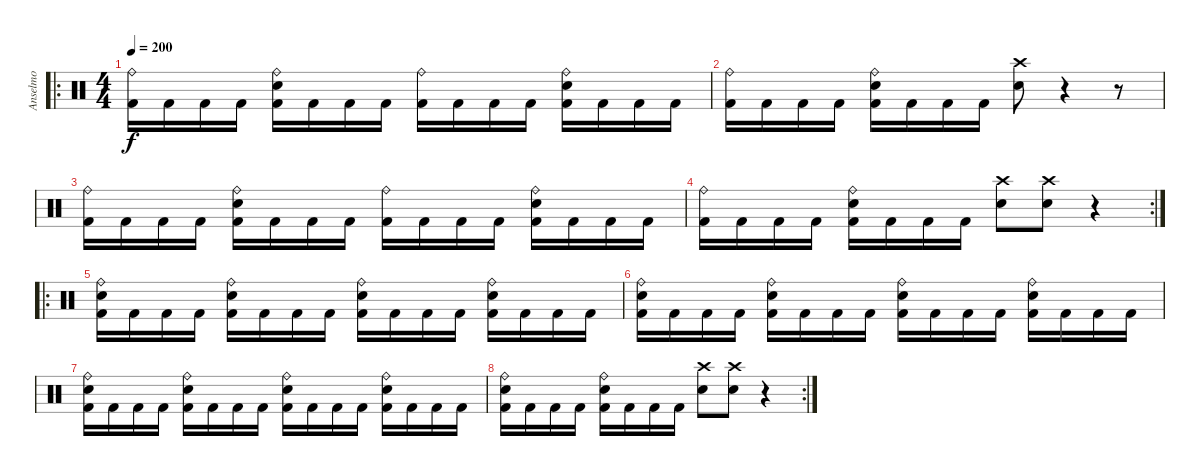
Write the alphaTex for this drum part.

\track ("Anselmo" "Anselmo") {instrument percussion}
\staff {score}
\articulation defaults
\ro
\ts (4 4)
\tempo 200
\clef neutral
\ks c
("Ride (bell)" "Kick (hit) 2").16{dy f} "Kick (hit) 2".16 "Kick (hit) 2".16 "Kick (hit) 2".16 ("Electric Snare (hit)" "Ride (bell)" "Kick (hit) 2").16 "Kick (hit) 2".16 "Kick (hit) 2".16 "Kick (hit) 2".16 ("Ride (bell)" "Kick (hit) 2").16 "Kick (hit) 2".16 "Kick (hit) 2".16 "Kick (hit) 2".16 ("Electric Snare (hit)" "Ride (bell)" "Kick (hit) 2").16 "Kick (hit) 2".16 "Kick (hit) 2".16 "Kick (hit) 2".16 |
("Ride (bell)" "Kick (hit) 2").16 "Kick (hit) 2".16 "Kick (hit) 2".16 "Kick (hit) 2".16 ("Electric Snare (hit)" "Ride (bell)" "Kick (hit) 2").16 "Kick (hit) 2".16 "Kick (hit) 2".16 "Kick (hit) 2".16 ("Crash high (hit)" "Electric Snare (hit)").8 r.4 r.8 |
("Ride (bell)" "Kick (hit) 2").16 "Kick (hit) 2".16 "Kick (hit) 2".16 "Kick (hit) 2".16 ("Electric Snare (hit)" "Ride (bell)" "Kick (hit) 2").16 "Kick (hit) 2".16 "Kick (hit) 2".16 "Kick (hit) 2".16 ("Ride (bell)" "Kick (hit) 2").16 "Kick (hit) 2".16 "Kick (hit) 2".16 "Kick (hit) 2".16 ("Electric Snare (hit)" "Ride (bell)" "Kick (hit) 2").16 "Kick (hit) 2".16 "Kick (hit) 2".16 "Kick (hit) 2".16 |
\rc 2
("Ride (bell)" "Kick (hit) 2").16 "Kick (hit) 2".16 "Kick (hit) 2".16 "Kick (hit) 2".16 ("Electric Snare (hit)" "Ride (bell)" "Kick (hit) 2").16 "Kick (hit) 2".16 "Kick (hit) 2".16 "Kick (hit) 2".16 ("Crash high (hit)" "Electric Snare (hit)").8 ("Crash high (hit)" "Electric Snare (hit)").8 r.4 |
\ro
("Electric Snare (hit)" "Ride (bell)" "Kick (hit) 2").16 "Kick (hit) 2".16 "Kick (hit) 2".16 "Kick (hit) 2".16 ("Electric Snare (hit)" "Ride (bell)" "Kick (hit) 2").16 "Kick (hit) 2".16 "Kick (hit) 2".16 "Kick (hit) 2".16 ("Electric Snare (hit)" "Ride (bell)" "Kick (hit) 2").16 "Kick (hit) 2".16 "Kick (hit) 2".16 "Kick (hit) 2".16 ("Electric Snare (hit)" "Ride (bell)" "Kick (hit) 2").16 "Kick (hit) 2".16 "Kick (hit) 2".16 "Kick (hit) 2".16 |
("Electric Snare (hit)" "Ride (bell)" "Kick (hit) 2").16 "Kick (hit) 2".16 "Kick (hit) 2".16 "Kick (hit) 2".16 ("Electric Snare (hit)" "Ride (bell)" "Kick (hit) 2").16 "Kick (hit) 2".16 "Kick (hit) 2".16 "Kick (hit) 2".16 ("Electric Snare (hit)" "Ride (bell)" "Kick (hit) 2").16 "Kick (hit) 2".16 "Kick (hit) 2".16 "Kick (hit) 2".16 ("Electric Snare (hit)" "Ride (bell)" "Kick (hit) 2").16 "Kick (hit) 2".16 "Kick (hit) 2".16 "Kick (hit) 2".16 |
("Electric Snare (hit)" "Ride (bell)" "Kick (hit) 2").16 "Kick (hit) 2".16 "Kick (hit) 2".16 "Kick (hit) 2".16 ("Electric Snare (hit)" "Ride (bell)" "Kick (hit) 2").16 "Kick (hit) 2".16 "Kick (hit) 2".16 "Kick (hit) 2".16 ("Electric Snare (hit)" "Ride (bell)" "Kick (hit) 2").16 "Kick (hit) 2".16 "Kick (hit) 2".16 "Kick (hit) 2".16 ("Electric Snare (hit)" "Ride (bell)" "Kick (hit) 2").16 "Kick (hit) 2".16 "Kick (hit) 2".16 "Kick (hit) 2".16 |
\rc 2
("Electric Snare (hit)" "Ride (bell)" "Kick (hit) 2").16 "Kick (hit) 2".16 "Kick (hit) 2".16 "Kick (hit) 2".16 ("Electric Snare (hit)" "Ride (bell)" "Kick (hit) 2").16 "Kick (hit) 2".16 "Kick (hit) 2".16 "Kick (hit) 2".16 ("Crash high (hit)" "Electric Snare (hit)").8 ("Crash high (hit)" "Electric Snare (hit)").8 r.4
